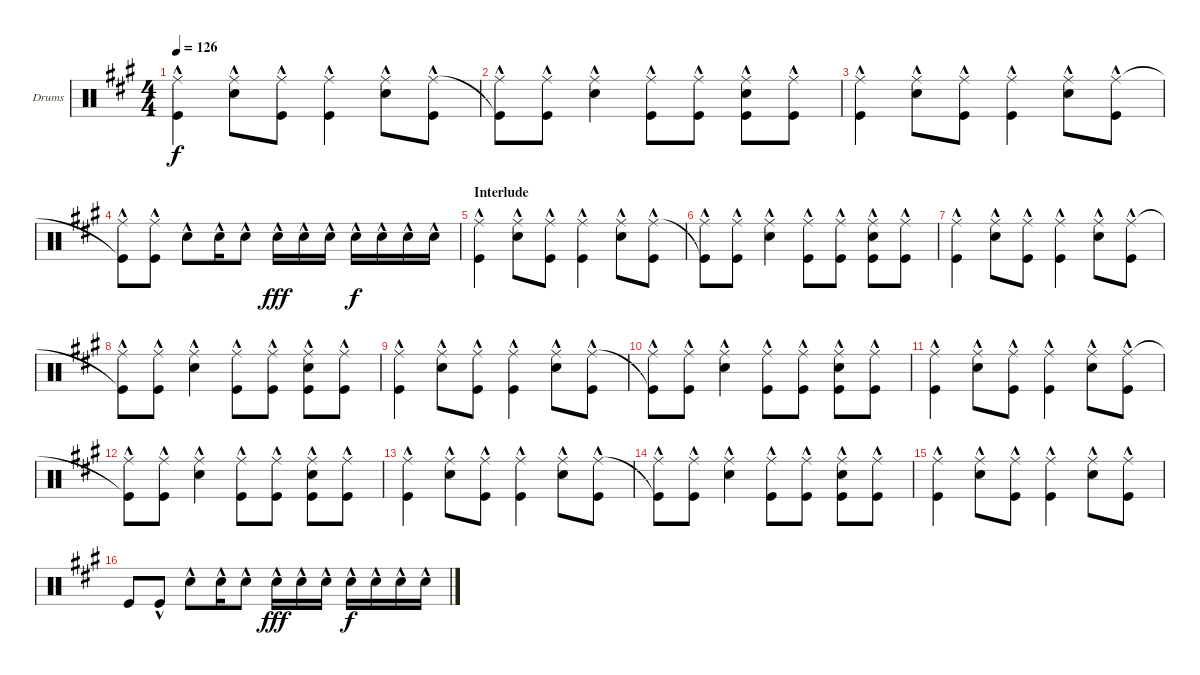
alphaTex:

\defaultSystemsLayout 4
\bracketExtendMode groupsimilarinstruments
\firstSystemTrackNameOrientation horizontal
\otherSystemsTrackNameOrientation horizontal
\track ("Drumkit" "Drums") {instrument percussion}
\staff {score}
\articulation defaults
\ts (4 4)
\tempo 126
\clef neutral
\scale
1.05801
\ks a
("Kick (hit)"{hac} "Ride (middle)"{hac}).4{dy f} ("Snare (hit) 2"{hac} "Ride (middle)"{hac}).8 ("Kick (hit)"{hac} "Ride (middle)"{hac}).8 ("Kick (hit)"{hac} "Ride (middle)"{hac}).4 ("Snare (hit) 2"{hac} "Ride (middle)"{hac}).8 ("Kick (hit)"{hac} "Ride (middle)"{hac}).8 |
\scale
0.941992 ("Ride (middle)"{hac} "Kick (hit)"{t}).8 ("Kick (hit)"{hac} "Ride (middle)"{hac}).8 ("Snare (hit) 2"{hac} "Ride (middle)"{hac}).4 ("Ride (middle)"{hac} "Kick (hit)"{hac}).8 ("Kick (hit)"{hac} "Ride (middle)"{hac}).8 ("Kick (hit)"{hac} "Snare (hit) 2"{hac} "Ride (middle)"{hac}).8 ("Kick (hit)"{hac} "Ride (middle)"{hac}).8 |
\scale
1.05801 ("Kick (hit)"{hac} "Ride (middle)"{hac}).4 ("Snare (hit) 2"{hac} "Ride (middle)"{hac}).8 ("Kick (hit)"{hac} "Ride (middle)"{hac}).8 ("Kick (hit)"{hac} "Ride (middle)"{hac}).4 ("Snare (hit) 2"{hac} "Ride (middle)"{hac}).8 ("Kick (hit)"{hac} "Ride (middle)"{hac}).8 |
\scale
0.941992 ("Ride (middle)"{hac} "Kick (hit)"{t}).8 ("Kick (hit)"{hac} "Ride (middle)"{hac}).8 "Snare (hit) 2"{hac}.8 "Snare (hit) 2"{hac}.16 "Snare (hit) 2"{hac}.8 "Snare (hit) 2"{hac}.16{dy fff} "Snare (hit) 2"{hac}.16 "Snare (hit) 2"{hac}.16 "Snare (hit) 2"{hac}.16{dy f} "Snare (hit) 2"{hac}.16 "Snare (hit) 2"{hac}.16 "Snare (hit) 2"{hac}.16 |
\section ("" "Interlude")
\scale
1.05801 ("Kick (hit)"{hac} "Ride (middle)"{hac}).4 ("Snare (hit) 2"{hac} "Ride (middle)"{hac}).8 ("Kick (hit)"{hac} "Ride (middle)"{hac}).8 ("Kick (hit)"{hac} "Ride (middle)"{hac}).4 ("Snare (hit) 2"{hac} "Ride (middle)"{hac}).8 ("Kick (hit)"{hac} "Ride (middle)"{hac}).8 |
\scale
0.941992 ("Ride (middle)"{hac} "Kick (hit)"{t}).8 ("Kick (hit)"{hac} "Ride (middle)"{hac}).8 ("Snare (hit) 2"{hac} "Ride (middle)"{hac}).4 ("Ride (middle)"{hac} "Kick (hit)"{hac}).8 ("Kick (hit)"{hac} "Ride (middle)"{hac}).8 ("Kick (hit)"{hac} "Snare (hit) 2"{hac} "Ride (middle)"{hac}).8 ("Kick (hit)"{hac} "Ride (middle)"{hac}).8 |
\scale
1.05801 ("Kick (hit)"{hac} "Ride (middle)"{hac}).4 ("Snare (hit) 2"{hac} "Ride (middle)"{hac}).8 ("Kick (hit)"{hac} "Ride (middle)"{hac}).8 ("Kick (hit)"{hac} "Ride (middle)"{hac}).4 ("Snare (hit) 2"{hac} "Ride (middle)"{hac}).8 ("Kick (hit)"{hac} "Ride (middle)"{hac}).8 |
\scale
0.941992 ("Ride (middle)"{hac} "Kick (hit)"{t}).8 ("Kick (hit)"{hac} "Ride (middle)"{hac}).8 ("Snare (hit) 2"{hac} "Ride (middle)"{hac}).4 ("Ride (middle)"{hac} "Kick (hit)"{hac}).8 ("Kick (hit)"{hac} "Ride (middle)"{hac}).8 ("Kick (hit)"{hac} "Snare (hit) 2"{hac} "Ride (middle)"{hac}).8 ("Kick (hit)"{hac} "Ride (middle)"{hac}).8 |
\scale
1.05801 ("Kick (hit)"{hac} "Ride (middle)"{hac}).4 ("Snare (hit) 2"{hac} "Ride (middle)"{hac}).8 ("Kick (hit)"{hac} "Ride (middle)"{hac}).8 ("Kick (hit)"{hac} "Ride (middle)"{hac}).4 ("Snare (hit) 2"{hac} "Ride (middle)"{hac}).8 ("Kick (hit)"{hac} "Ride (middle)"{hac}).8 |
\scale
0.941992 ("Ride (middle)"{hac} "Kick (hit)"{t}).8 ("Kick (hit)"{hac} "Ride (middle)"{hac}).8 ("Snare (hit) 2"{hac} "Ride (middle)"{hac}).4 ("Ride (middle)"{hac} "Kick (hit)"{hac}).8 ("Kick (hit)"{hac} "Ride (middle)"{hac}).8 ("Kick (hit)"{hac} "Snare (hit) 2"{hac} "Ride (middle)"{hac}).8 ("Kick (hit)"{hac} "Ride (middle)"{hac}).8 |
\scale
1.05801 ("Kick (hit)"{hac} "Ride (middle)"{hac}).4 ("Snare (hit) 2"{hac} "Ride (middle)"{hac}).8 ("Kick (hit)"{hac} "Ride (middle)"{hac}).8 ("Kick (hit)"{hac} "Ride (middle)"{hac}).4 ("Snare (hit) 2"{hac} "Ride (middle)"{hac}).8 ("Kick (hit)"{hac} "Ride (middle)"{hac}).8 |
\scale
0.941992 ("Ride (middle)"{hac} "Kick (hit)"{t}).8 ("Kick (hit)"{hac} "Ride (middle)"{hac}).8 ("Snare (hit) 2"{hac} "Ride (middle)"{hac}).4 ("Ride (middle)"{hac} "Kick (hit)"{hac}).8 ("Kick (hit)"{hac} "Ride (middle)"{hac}).8 ("Kick (hit)"{hac} "Snare (hit) 2"{hac} "Ride (middle)"{hac}).8 ("Kick (hit)"{hac} "Ride (middle)"{hac}).8 |
\scale
1.05801 ("Kick (hit)"{hac} "Ride (middle)"{hac}).4 ("Snare (hit) 2"{hac} "Ride (middle)"{hac}).8 ("Kick (hit)"{hac} "Ride (middle)"{hac}).8 ("Kick (hit)"{hac} "Ride (middle)"{hac}).4 ("Snare (hit) 2"{hac} "Ride (middle)"{hac}).8 ("Kick (hit)"{hac} "Ride (middle)"{hac}).8 |
\scale
0.941992 ("Ride (middle)"{hac} "Kick (hit)"{t}).8 ("Kick (hit)"{hac} "Ride (middle)"{hac}).8 ("Snare (hit) 2"{hac} "Ride (middle)"{hac}).4 ("Ride (middle)"{hac} "Kick (hit)"{hac}).8 ("Kick (hit)"{hac} "Ride (middle)"{hac}).8 ("Kick (hit)"{hac} "Snare (hit) 2"{hac} "Ride (middle)"{hac}).8 ("Kick (hit)"{hac} "Ride (middle)"{hac}).8 |
\scale
1.05801 ("Kick (hit)"{hac} "Ride (middle)"{hac}).4 ("Snare (hit) 2"{hac} "Ride (middle)"{hac}).8 ("Kick (hit)"{hac} "Ride (middle)"{hac}).8 ("Kick (hit)"{hac} "Ride (middle)"{hac}).4 ("Snare (hit) 2"{hac} "Ride (middle)"{hac}).8 ("Kick (hit)"{hac} "Ride (middle)"{hac}).8 |
\scale
0.941992 "Kick (hit)".8 "Kick (hit)"{hac}.8 "Snare (hit) 2"{hac}.8 "Snare (hit) 2"{hac}.16 "Snare (hit) 2"{hac}.8 "Snare (hit) 2"{hac}.16{dy fff} "Snare (hit) 2"{hac}.16 "Snare (hit) 2"{hac}.16 "Snare (hit) 2"{hac}.16{dy f} "Snare (hit) 2"{hac}.16 "Snare (hit) 2"{hac}.16 "Snare (hit) 2"{hac}.16
